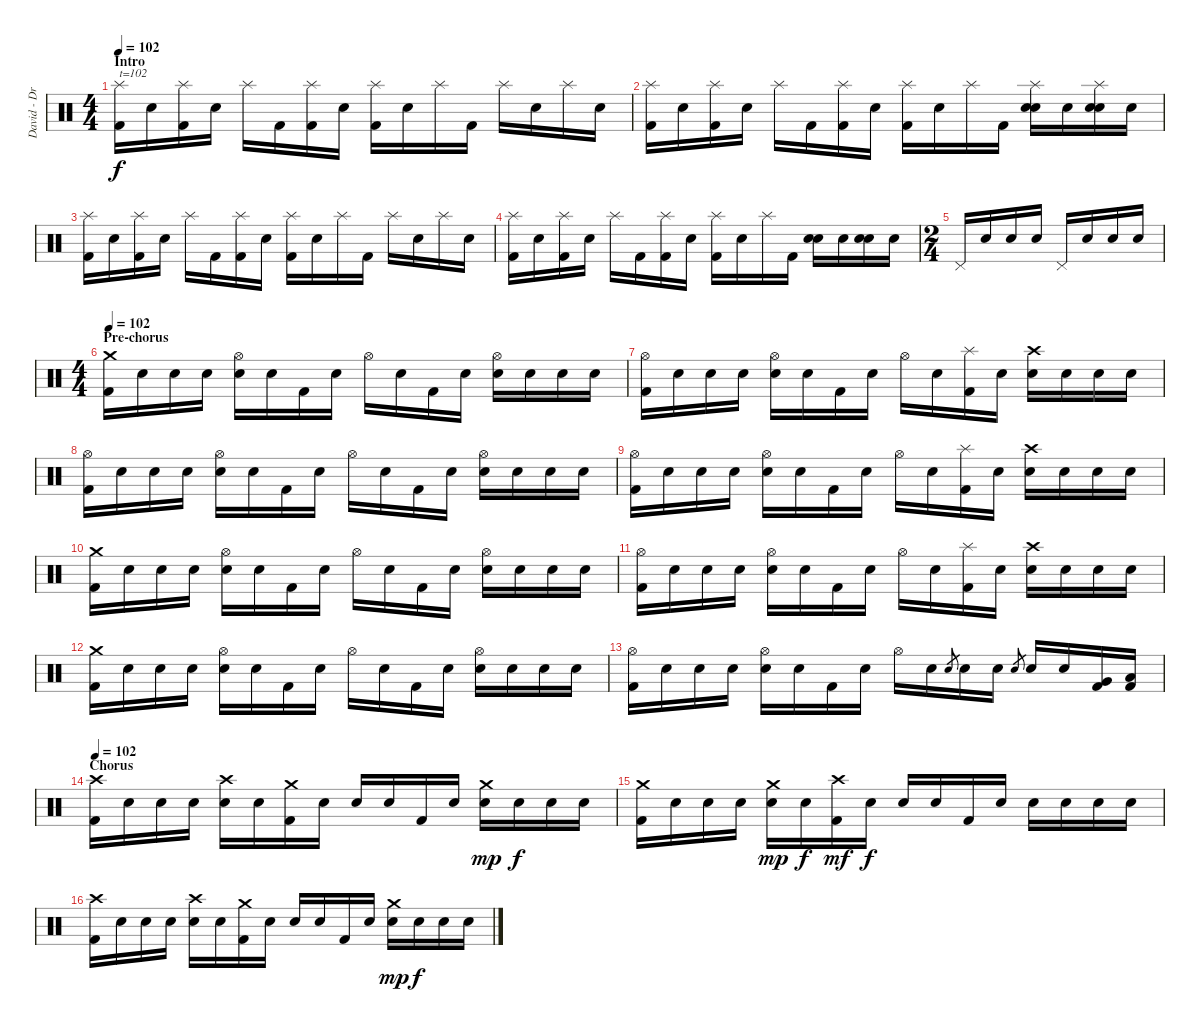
\track ("David - Drums" "David - Dr") {instrument percussion}
\staff {score}
\articulation defaults
\ts (4 4)
\section ("" "Intro")
\tempo 102
\clef neutral
\ks c
("Splash (hit)" "Kick (hit) 2").16{txt "t=102" dy f volume 16 balance 8} "Snare (hit)".16 ("Splash (hit)" "Kick (hit) 2").16 "Electric Snare (hit)".16 "Splash (hit)".16 "Kick (hit) 2".16 ("Splash (hit)" "Kick (hit) 2").16 "Snare (hit)".16 ("Splash (hit)" "Kick (hit) 2").16 "Electric Snare (hit)".16 "Splash (hit)".16 "Kick (hit) 2".16 "Splash (hit)".16 "Snare (hit)".16 "Splash (hit)".16 "Snare (hit)".16 |
("Splash (hit)" "Kick (hit) 2").16 "Snare (hit)".16 ("Splash (hit)" "Kick (hit) 2").16 "Electric Snare (hit)".16 "Splash (hit)".16 "Kick (hit) 2".16 ("Splash (hit)" "Kick (hit) 2").16 "Snare (hit)".16 ("Splash (hit)" "Kick (hit) 2").16 "Electric Snare (hit)".16 "Splash (hit)".16 "Kick (hit) 2".16 ("Splash (hit)" "Electric Snare (hit)" "Snare (hit) 2").16 "Snare (hit)".16 ("Splash (hit)" "Electric Snare (hit)" "Snare (hit) 2").16 "Snare (hit)".16 |
("Splash (hit)" "Kick (hit) 2").16 "Snare (hit)".16 ("Splash (hit)" "Kick (hit) 2").16 "Electric Snare (hit)".16 "Splash (hit)".16 "Kick (hit) 2".16 ("Splash (hit)" "Kick (hit) 2").16 "Snare (hit)".16 ("Splash (hit)" "Kick (hit) 2").16 "Electric Snare (hit)".16 "Splash (hit)".16 "Kick (hit) 2".16 "Splash (hit)".16 "Snare (hit)".16 "Splash (hit)".16 "Snare (hit)".16 |
("Splash (hit)" "Kick (hit) 2").16 "Snare (hit)".16 ("Splash (hit)" "Kick (hit) 2").16 "Electric Snare (hit)".16 "Splash (hit)".16 "Kick (hit) 2".16 ("Splash (hit)" "Kick (hit) 2").16 "Snare (hit)".16 ("Splash (hit)" "Kick (hit) 2").16 "Electric Snare (hit)".16 "Splash (hit)".16 "Kick (hit) 2".16 ("Electric Snare (hit)" "Snare (hit) 2").16 "Snare (hit)".16 ("Electric Snare (hit)" "Snare (hit) 2").16 "Snare (hit)".16 |
\ts (2 4)
"Pedal Hi-Hat (hit)".16 "Snare (hit)".16 "Snare (hit)".16 "Snare (hit)".16 "Pedal Hi-Hat (hit)".16 "Snare (hit)".16 "Snare (hit)".16 "Snare (hit)".16 |
\ts (4 4)
\section ("" "Pre-chorus")
\tempo 102
("Crash medium (hit)" "Kick (hit) 2").16{volume 16 balance 8} "Snare (hit)".16 "Snare (hit)".16 "Snare (hit)".16 ("Hi-Hat (open)" "Electric Snare (hit)").16 "Snare (hit)".16 "Kick (hit) 2".16 "Snare (hit)".16 "Hi-Hat (open)".16 "Snare (hit)".16 "Kick (hit) 2".16 "Snare (hit)".16 ("Hi-Hat (open)" "Electric Snare (hit)").16 "Snare (hit)".16 "Snare (hit)".16 "Snare (hit)".16 |
("Hi-Hat (open)" "Kick (hit) 2").16 "Snare (hit)".16 "Snare (hit)".16 "Snare (hit)".16 ("Hi-Hat (open)" "Electric Snare (hit)").16 "Snare (hit)".16 "Kick (hit) 2".16 "Snare (hit)".16 "Hi-Hat (open)".16 "Snare (hit)".16 ("Splash (hit)" "Kick (hit) 2").16 "Snare (hit)".16 ("Crash high (hit)" "Electric Snare (hit)").16 "Snare (hit)".16 "Snare (hit)".16 "Snare (hit)".16 |
("Hi-Hat (open)" "Kick (hit) 2").16 "Snare (hit)".16 "Snare (hit)".16 "Snare (hit)".16 ("Hi-Hat (open)" "Electric Snare (hit)").16 "Snare (hit)".16 "Kick (hit) 2".16 "Snare (hit)".16 "Hi-Hat (open)".16 "Snare (hit)".16 "Kick (hit) 2".16 "Snare (hit)".16 ("Hi-Hat (open)" "Electric Snare (hit)").16 "Snare (hit)".16 "Snare (hit)".16 "Snare (hit)".16 |
("Hi-Hat (open)" "Kick (hit) 2").16 "Snare (hit)".16 "Snare (hit)".16 "Snare (hit)".16 ("Hi-Hat (open)" "Electric Snare (hit)").16 "Snare (hit)".16 "Kick (hit) 2".16 "Snare (hit)".16 "Hi-Hat (open)".16 "Snare (hit)".16 ("Splash (hit)" "Kick (hit) 2").16 "Snare (hit)".16 ("Crash high (hit)" "Electric Snare (hit)").16 "Snare (hit)".16 "Snare (hit)".16 "Snare (hit)".16 |
("Crash medium (hit)" "Kick (hit) 2").16 "Snare (hit)".16 "Snare (hit)".16 "Snare (hit)".16 ("Hi-Hat (open)" "Electric Snare (hit)").16 "Snare (hit)".16 "Kick (hit) 2".16 "Snare (hit)".16 "Hi-Hat (open)".16 "Snare (hit)".16 "Kick (hit) 2".16 "Snare (hit)".16 ("Hi-Hat (open)" "Electric Snare (hit)").16 "Snare (hit)".16 "Snare (hit)".16 "Snare (hit)".16 |
("Hi-Hat (open)" "Kick (hit) 2").16 "Snare (hit)".16 "Snare (hit)".16 "Snare (hit)".16 ("Hi-Hat (open)" "Electric Snare (hit)").16 "Snare (hit)".16 "Kick (hit) 2".16 "Snare (hit)".16 "Hi-Hat (open)".16 "Snare (hit)".16 ("Splash (hit)" "Kick (hit) 2").16 "Snare (hit)".16 ("Crash high (hit)" "Electric Snare (hit)").16 "Snare (hit)".16 "Snare (hit)".16 "Snare (hit)".16 |
("Crash medium (hit)" "Kick (hit) 2").16 "Snare (hit)".16 "Snare (hit)".16 "Snare (hit)".16 ("Hi-Hat (open)" "Electric Snare (hit)").16 "Snare (hit)".16 "Kick (hit) 2".16 "Snare (hit)".16 "Hi-Hat (open)".16 "Snare (hit)".16 "Kick (hit) 2".16 "Snare (hit)".16 ("Hi-Hat (open)" "Electric Snare (hit)").16 "Snare (hit)".16 "Snare (hit)".16 "Snare (hit)".16 |
("Hi-Hat (open)" "Kick (hit) 2").16 "Snare (hit)".16 "Snare (hit)".16 "Snare (hit)".16 ("Hi-Hat (open)" "Electric Snare (hit)").16 "Snare (hit)".16 "Kick (hit) 2".16 "Snare (hit)".16 "Hi-Hat (open)".16 "Snare (hit)".16 "Electric Snare (hit)".8{gr} "Electric Snare (hit)".16 "Snare (hit)".16 "Electric Snare (hit)".8{gr} "Electric Snare (hit)".16 "Snare (hit)".16 ("Very Low Tom (hit)" "Kick (hit) 2").16 ("Low Floor Tom (hit)" "Kick (hit) 2").16 |
\section ("" "Chorus")
\tempo 102
("Crash high (hit)" "Kick (hit) 2").16{volume 16 balance 8} "Snare (hit)".16 "Snare (hit)".16 "Snare (hit)".16 ("Crash high (hit)" "Electric Snare (hit)").16 "Snare (hit)".16 ("Crash medium (hit)" "Kick (hit) 2").16 "Snare (hit)".16 "Snare (hit)".16 "Snare (hit)".16 "Kick (hit) 2".16 "Snare (hit)".16 ("Crash medium (hit)" "Electric Snare (hit)").16{dy mp} "Snare (hit)".16{dy f} "Snare (hit)".16 "Snare (hit)".16 |
("Crash medium (hit)" "Kick (hit) 2").16 "Snare (hit)".16 "Snare (hit)".16 "Snare (hit)".16 ("Crash medium (hit)" "Electric Snare (hit)").16{dy mp} "Snare (hit)".16{dy f} ("Crash high (hit)" "Kick (hit) 2").16{dy mf} "Snare (hit)".16{dy f} "Snare (hit)".16 "Snare (hit)".16 "Kick (hit) 2".16 "Snare (hit)".16 "Electric Snare (hit)".16 "Snare (hit)".16 "Snare (hit)".16 "Snare (hit)".16 |
("Crash high (hit)" "Kick (hit) 2").16 "Snare (hit)".16 "Snare (hit)".16 "Snare (hit)".16 ("Crash high (hit)" "Electric Snare (hit)").16 "Snare (hit)".16 ("Crash medium (hit)" "Kick (hit) 2").16 "Snare (hit)".16 "Snare (hit)".16 "Snare (hit)".16 "Kick (hit) 2".16 "Snare (hit)".16 ("Crash medium (hit)" "Electric Snare (hit)").16{dy mp} "Snare (hit)".16{dy f} "Snare (hit)".16 "Snare (hit)".16
